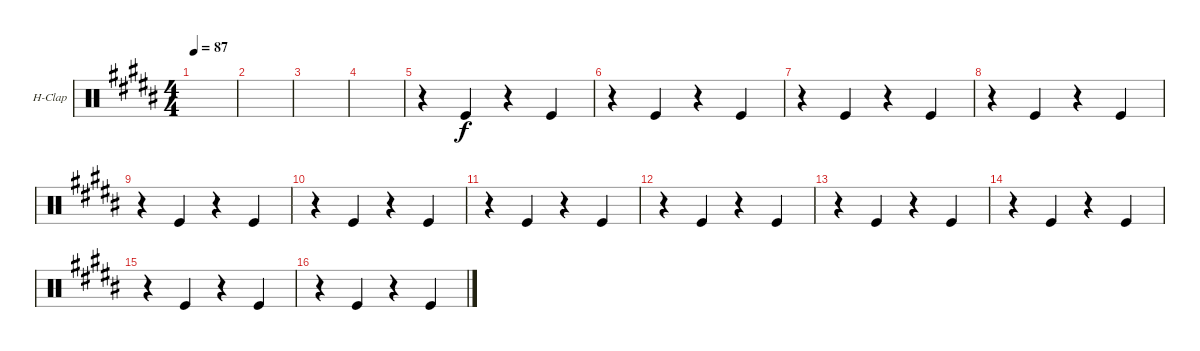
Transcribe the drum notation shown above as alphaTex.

\defaultSystemsLayout 4
\bracketExtendMode groupsimilarinstruments
\firstSystemTrackNameOrientation horizontal
\otherSystemsTrackNameOrientation horizontal
\track ("Hand Clap" "H-Clap") {instrument percussion}
\staff {score}
\articulation defaults
\ts (4 4)
\tempo 87
\clef neutral
\ks b
|
|
|
|
r.4 "Kick (hit)".4 r.4 "Kick (hit)".4 |
r.4 "Kick (hit)".4 r.4 "Kick (hit)".4 |
r.4 "Kick (hit)".4 r.4 "Kick (hit)".4 |
r.4 "Kick (hit)".4 r.4 "Kick (hit)".4 |
r.4 "Kick (hit)".4 r.4 "Kick (hit)".4 |
r.4 "Kick (hit)".4 r.4 "Kick (hit)".4 |
r.4 "Kick (hit)".4 r.4 "Kick (hit)".4 |
r.4 "Kick (hit)".4 r.4 "Kick (hit)".4 |
r.4 "Kick (hit)".4 r.4 "Kick (hit)".4 |
r.4 "Kick (hit)".4 r.4 "Kick (hit)".4 |
r.4 "Kick (hit)".4 r.4 "Kick (hit)".4 |
r.4 "Kick (hit)".4 r.4 "Kick (hit)".4
